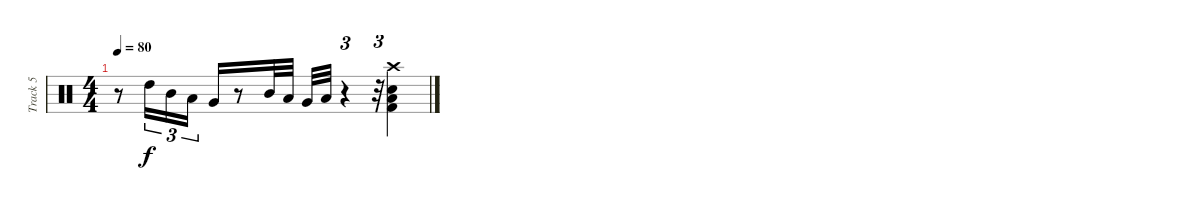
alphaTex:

\track ("Track 5" "Track 5") {instrument percussion}
\staff {score}
\articulation defaults
\ts (4 4)
\tempo 80
\clef neutral
\ks c
r.8{dy ppp} "High Tom (hit)".16{tu (3 2) dy f} "Mid Tom (hit)".16{tu (3 2)} "Low Tom (hit)".16{tu (3 2)} "Very Low Tom (hit)".16 r.8 "Mid Tom (hit)".32 "Low Tom (hit)".32 "Very Low Tom (hit)".32 "Low Floor Tom (hit)".32 r.4{tu (3 2)} r.32{tu (3 2)} ("Kick (hit) 2" "Snare (hit) 2" "Low Tom (hit)" "Crash high (hit)").4
